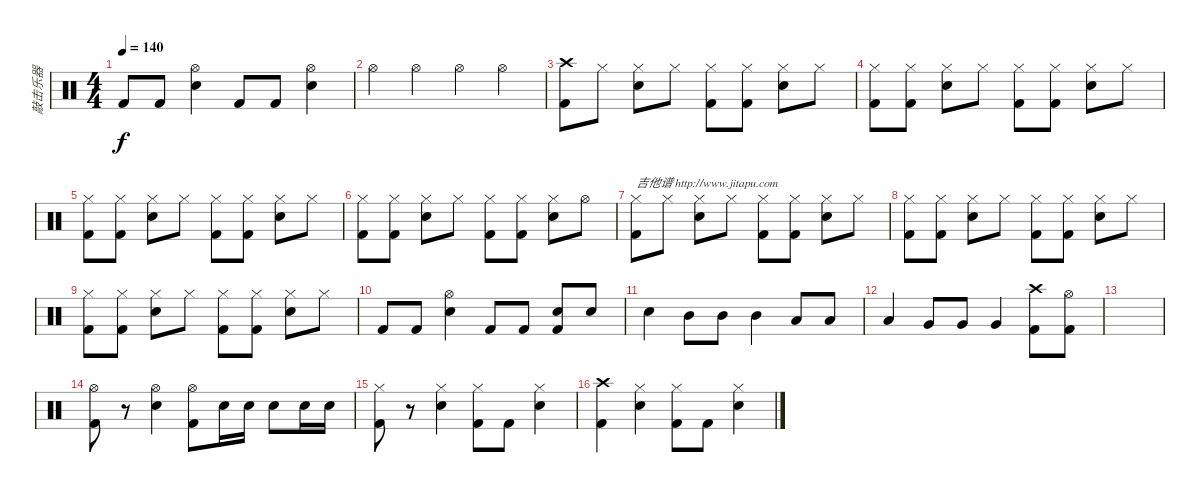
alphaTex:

\track ("敲击乐器" "敲击乐器") {instrument percussion}
\staff {score}
\articulation defaults
\ts (4 4)
\tempo 140
\clef neutral
\ks c "Kick (hit) 2".8{dy f} "Kick (hit) 2".8
("Hi-Hat (open)" "Electric Snare (hit)").4 "Kick (hit) 2".8 "Kick (hit) 2".8 ("Hi-Hat (open)" "Electric Snare (hit)").4 |
"Hi-Hat (open)".4 "Hi-Hat (open)".4 "Hi-Hat (open)".4 "Hi-Hat (open)".4 |
("Crash high (hit)" "Kick (hit) 2").8 "Hi-Hat (closed)".8 ("Hi-Hat (closed)" "Electric Snare (hit)").8 "Hi-Hat (closed)".8 ("Hi-Hat (closed)" "Kick (hit) 2").8 ("Hi-Hat (closed)" "Kick (hit) 2").8 ("Hi-Hat (closed)" "Electric Snare (hit)").8 "Hi-Hat (closed)".8 |
("Hi-Hat (closed)" "Kick (hit) 2").8 ("Hi-Hat (closed)" "Kick (hit) 2").8 ("Hi-Hat (closed)" "Electric Snare (hit)").8 "Hi-Hat (closed)".8 ("Hi-Hat (closed)" "Kick (hit) 2").8 ("Hi-Hat (closed)" "Kick (hit) 2").8 ("Hi-Hat (closed)" "Electric Snare (hit)").8 "Hi-Hat (closed)".8 |
("Hi-Hat (closed)" "Kick (hit) 2").8 ("Hi-Hat (closed)" "Kick (hit) 2").8 ("Hi-Hat (closed)" "Electric Snare (hit)").8 "Hi-Hat (closed)".8 ("Hi-Hat (closed)" "Kick (hit) 2").8 ("Hi-Hat (closed)" "Kick (hit) 2").8 ("Hi-Hat (closed)" "Electric Snare (hit)").8 "Hi-Hat (closed)".8 |
("Hi-Hat (closed)" "Kick (hit) 2").8 ("Hi-Hat (closed)" "Kick (hit) 2").8 ("Hi-Hat (closed)" "Electric Snare (hit)").8 "Hi-Hat (closed)".8 ("Hi-Hat (closed)" "Kick (hit) 2").8 ("Hi-Hat (closed)" "Kick (hit) 2").8 ("Hi-Hat (closed)" "Electric Snare (hit)").8 "Hi-Hat (open)".8 |
("Hi-Hat (closed)" "Kick (hit) 2").8{txt "吉他谱 http://www.jitapu.com"} "Hi-Hat (closed)".8 ("Hi-Hat (closed)" "Electric Snare (hit)").8 "Hi-Hat (closed)".8 ("Hi-Hat (closed)" "Kick (hit) 2").8 ("Hi-Hat (closed)" "Kick (hit) 2").8 ("Hi-Hat (closed)" "Electric Snare (hit)").8 "Hi-Hat (closed)".8 |
("Hi-Hat (closed)" "Kick (hit) 2").8 ("Hi-Hat (closed)" "Kick (hit) 2").8 ("Hi-Hat (closed)" "Electric Snare (hit)").8 "Hi-Hat (closed)".8 ("Hi-Hat (closed)" "Kick (hit) 2").8 ("Hi-Hat (closed)" "Kick (hit) 2").8 ("Hi-Hat (closed)" "Electric Snare (hit)").8 "Hi-Hat (closed)".8 |
("Hi-Hat (closed)" "Kick (hit) 2").8 ("Hi-Hat (closed)" "Kick (hit) 2").8 ("Hi-Hat (closed)" "Electric Snare (hit)").8 "Hi-Hat (closed)".8 ("Hi-Hat (closed)" "Kick (hit) 2").8 ("Hi-Hat (closed)" "Kick (hit) 2").8 ("Hi-Hat (closed)" "Electric Snare (hit)").8 "Hi-Hat (closed)".8 |
"Kick (hit) 2".8 "Kick (hit) 2".8 ("Hi-Hat (open)" "Electric Snare (hit)").4 "Kick (hit) 2".8 "Kick (hit) 2".8 ("Electric Snare (hit)" "Kick (hit) 2").8 "Electric Snare (hit)".8 |
"Electric Snare (hit)".4 "Mid Tom (hit)".8 "Mid Tom (hit)".8 "Mid Tom (hit)".4 "Low Tom (hit)".8 "Low Tom (hit)".8 |
"Low Tom (hit)".4 "Very Low Tom (hit)".8 "Very Low Tom (hit)".8 "Very Low Tom (hit)".4 ("Crash high (hit)" "Kick (hit) 2").8 ("Hi-Hat (open)" "Kick (hit) 2").8 |
|
("Hi-Hat (open)" "Kick (hit) 2").8 r.8 ("Hi-Hat (open)" "Electric Snare (hit)").4 ("Hi-Hat (open)" "Kick (hit) 2").8 "Electric Snare (hit)".16 "Electric Snare (hit)".16 "Electric Snare (hit)".8 "Electric Snare (hit)".16 "Electric Snare (hit)".16 |
("Hi-Hat (closed)" "Kick (hit) 2").8 r.8 ("Hi-Hat (closed)" "Electric Snare (hit)").4 ("Hi-Hat (closed)" "Kick (hit) 2").8 "Kick (hit) 2".8 ("Hi-Hat (closed)" "Electric Snare (hit)").4 |
("Crash high (hit)" "Kick (hit) 2").4 ("Hi-Hat (closed)" "Electric Snare (hit)").4 ("Hi-Hat (closed)" "Kick (hit) 2").8 "Kick (hit) 2".8 ("Hi-Hat (closed)" "Electric Snare (hit)").4
